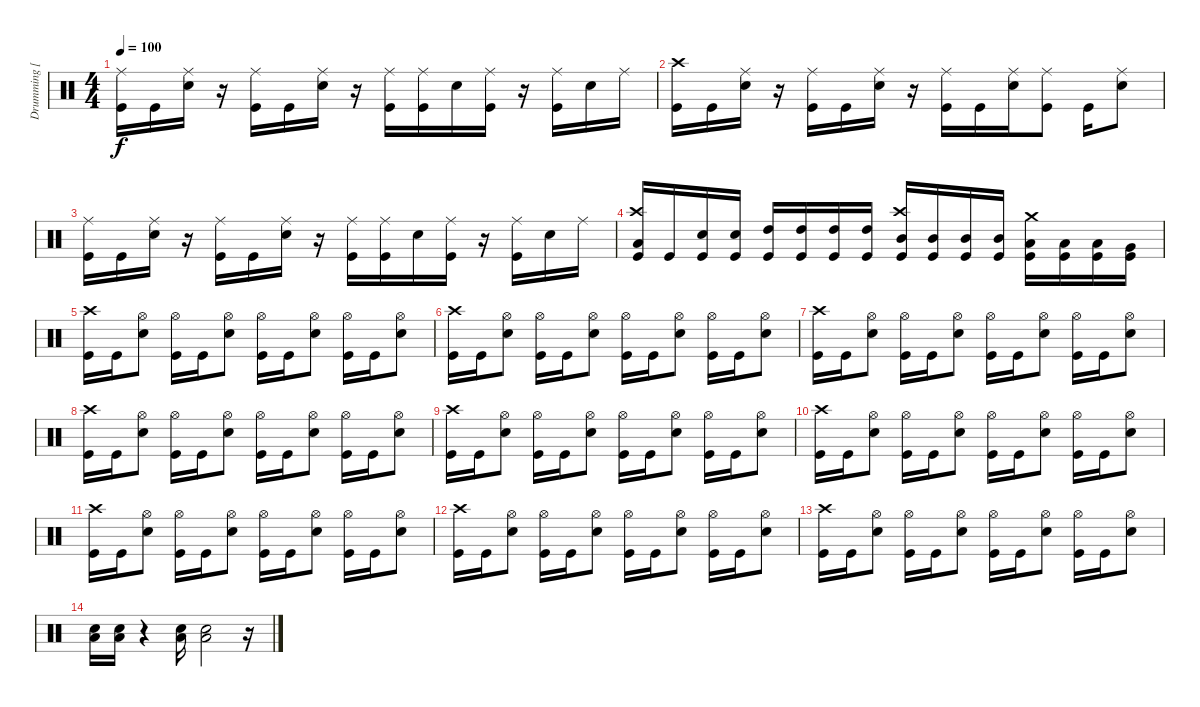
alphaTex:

\track ("Drumming [Jukka]" "Drumming [") {instrument percussion}
\staff {score}
\articulation defaults
\ts (4 4)
\tempo 100
\clef neutral
\ks c
("Ride (middle)" "Kick (hit)").16{dy f} "Kick (hit)".16 ("Ride (middle)" "Electric Snare (hit)").16 r.16 ("Ride (middle)" "Kick (hit)").16 "Kick (hit)".16 ("Ride (middle)" "Electric Snare (hit)").16 r.16 ("Ride (middle)" "Kick (hit)").16 ("Ride (middle)" "Kick (hit)").16 "Electric Snare (hit)".16 ("Ride (middle)" "Kick (hit)").16 r.16 ("Ride (middle)" "Kick (hit)").16 "Electric Snare (hit)".16 "Ride (middle)".16 |
("Crash high (hit)" "Kick (hit)").16 "Kick (hit)".16 ("Ride (middle)" "Electric Snare (hit)").16 r.16 ("Ride (middle)" "Kick (hit)").16 "Kick (hit)".16 ("Ride (middle)" "Electric Snare (hit)").16 r.16 ("Ride (middle)" "Kick (hit)").16 "Kick (hit)".16 ("Ride (middle)" "Electric Snare (hit)").16 ("Ride (middle)" "Kick (hit)").8 "Kick (hit)".16 ("Ride (middle)" "Electric Snare (hit)").8 |
("Ride (middle)" "Kick (hit)").16 "Kick (hit)".16 ("Ride (middle)" "Electric Snare (hit)").16 r.16 ("Ride (middle)" "Kick (hit)").16 "Kick (hit)".16 ("Ride (middle)" "Electric Snare (hit)").16 r.16 ("Ride (middle)" "Kick (hit)").16 ("Ride (middle)" "Kick (hit)").16 "Electric Snare (hit)".16 ("Ride (middle)" "Kick (hit)").16 r.16 ("Ride (middle)" "Kick (hit)").16 "Electric Snare (hit)".16 "Ride (middle)".16 |
("Crash high (hit)" "Low Tom (hit)" "Kick (hit)").16 "Kick (hit)".16 ("Electric Snare (hit)" "Kick (hit)").16 ("Electric Snare (hit)" "Kick (hit)").16 ("High Tom (hit)" "Kick (hit)").16 ("High Tom (hit)" "Kick (hit)").16 ("High Tom (hit)" "Kick (hit)").16 ("High Tom (hit)" "Kick (hit)").16 ("Crash high (hit)" "Mid Tom (hit)" "Kick (hit)").16 ("Mid Tom (hit)" "Kick (hit)").16 ("Mid Tom (hit)" "Kick (hit)").16 ("Mid Tom (hit)" "Kick (hit)").16 ("Crash medium (hit)" "Low Tom (hit)" "Kick (hit)").16 ("Low Tom (hit)" "Kick (hit)").16 ("Low Tom (hit)" "Kick (hit)").16 ("Very Low Tom (hit)" "Kick (hit)").16 |
("Crash high (hit)" "Kick (hit)").16 "Kick (hit)".16 ("Hi-Hat (open)" "Electric Snare (hit)").8 ("Hi-Hat (open)" "Kick (hit)").16 "Kick (hit)".16 ("Hi-Hat (open)" "Electric Snare (hit)").8 ("Hi-Hat (open)" "Kick (hit)").16 "Kick (hit)".16 ("Hi-Hat (open)" "Electric Snare (hit)").8 ("Hi-Hat (open)" "Kick (hit)").16 "Kick (hit)".16 ("Hi-Hat (open)" "Electric Snare (hit)").8 |
("Crash high (hit)" "Kick (hit)").16 "Kick (hit)".16 ("Hi-Hat (open)" "Electric Snare (hit)").8 ("Hi-Hat (open)" "Kick (hit)").16 "Kick (hit)".16 ("Hi-Hat (open)" "Electric Snare (hit)").8 ("Hi-Hat (open)" "Kick (hit)").16 "Kick (hit)".16 ("Hi-Hat (open)" "Electric Snare (hit)").8 ("Hi-Hat (open)" "Kick (hit)").16 "Kick (hit)".16 ("Hi-Hat (open)" "Electric Snare (hit)").8 |
("Crash high (hit)" "Kick (hit)").16 "Kick (hit)".16 ("Hi-Hat (open)" "Electric Snare (hit)").8 ("Hi-Hat (open)" "Kick (hit)").16 "Kick (hit)".16 ("Hi-Hat (open)" "Electric Snare (hit)").8 ("Hi-Hat (open)" "Kick (hit)").16 "Kick (hit)".16 ("Hi-Hat (open)" "Electric Snare (hit)").8 ("Hi-Hat (open)" "Kick (hit)").16 "Kick (hit)".16 ("Hi-Hat (open)" "Electric Snare (hit)").8 |
("Crash high (hit)" "Kick (hit)").16 "Kick (hit)".16 ("Hi-Hat (open)" "Electric Snare (hit)").8 ("Hi-Hat (open)" "Kick (hit)").16 "Kick (hit)".16 ("Hi-Hat (open)" "Electric Snare (hit)").8 ("Hi-Hat (open)" "Kick (hit)").16 "Kick (hit)".16 ("Hi-Hat (open)" "Electric Snare (hit)").8 ("Hi-Hat (open)" "Kick (hit)").16 "Kick (hit)".16 ("Hi-Hat (open)" "Electric Snare (hit)").8 |
("Crash high (hit)" "Kick (hit)").16 "Kick (hit)".16 ("Hi-Hat (open)" "Electric Snare (hit)").8 ("Hi-Hat (open)" "Kick (hit)").16 "Kick (hit)".16 ("Hi-Hat (open)" "Electric Snare (hit)").8 ("Hi-Hat (open)" "Kick (hit)").16 "Kick (hit)".16 ("Hi-Hat (open)" "Electric Snare (hit)").8 ("Hi-Hat (open)" "Kick (hit)").16 "Kick (hit)".16 ("Hi-Hat (open)" "Electric Snare (hit)").8 |
("Crash high (hit)" "Kick (hit)").16 "Kick (hit)".16 ("Hi-Hat (open)" "Electric Snare (hit)").8 ("Hi-Hat (open)" "Kick (hit)").16 "Kick (hit)".16 ("Hi-Hat (open)" "Electric Snare (hit)").8 ("Hi-Hat (open)" "Kick (hit)").16 "Kick (hit)".16 ("Hi-Hat (open)" "Electric Snare (hit)").8 ("Hi-Hat (open)" "Kick (hit)").16 "Kick (hit)".16 ("Hi-Hat (open)" "Electric Snare (hit)").8 |
("Crash high (hit)" "Kick (hit)").16 "Kick (hit)".16 ("Hi-Hat (open)" "Electric Snare (hit)").8 ("Hi-Hat (open)" "Kick (hit)").16 "Kick (hit)".16 ("Hi-Hat (open)" "Electric Snare (hit)").8 ("Hi-Hat (open)" "Kick (hit)").16 "Kick (hit)".16 ("Hi-Hat (open)" "Electric Snare (hit)").8 ("Hi-Hat (open)" "Kick (hit)").16 "Kick (hit)".16 ("Hi-Hat (open)" "Electric Snare (hit)").8 |
("Crash high (hit)" "Kick (hit)").16 "Kick (hit)".16 ("Hi-Hat (open)" "Electric Snare (hit)").8 ("Hi-Hat (open)" "Kick (hit)").16 "Kick (hit)".16 ("Hi-Hat (open)" "Electric Snare (hit)").8 ("Hi-Hat (open)" "Kick (hit)").16 "Kick (hit)".16 ("Hi-Hat (open)" "Electric Snare (hit)").8 ("Hi-Hat (open)" "Kick (hit)").16 "Kick (hit)".16 ("Hi-Hat (open)" "Electric Snare (hit)").8 |
("Crash high (hit)" "Kick (hit)").16 "Kick (hit)".16 ("Hi-Hat (open)" "Electric Snare (hit)").8 ("Hi-Hat (open)" "Kick (hit)").16 "Kick (hit)".16 ("Hi-Hat (open)" "Electric Snare (hit)").8 ("Hi-Hat (open)" "Kick (hit)").16 "Kick (hit)".16 ("Hi-Hat (open)" "Electric Snare (hit)").8 ("Hi-Hat (open)" "Kick (hit)").16 "Kick (hit)".16 ("Hi-Hat (open)" "Electric Snare (hit)").8 |
("Low Floor Tom (hit)" "Electric Snare (hit)").16 ("Low Floor Tom (hit)" "Electric Snare (hit)").16 r.4 ("Low Floor Tom (hit)" "Electric Snare (hit)").16 ("Low Floor Tom (hit)" "Electric Snare (hit)").2 r.16
